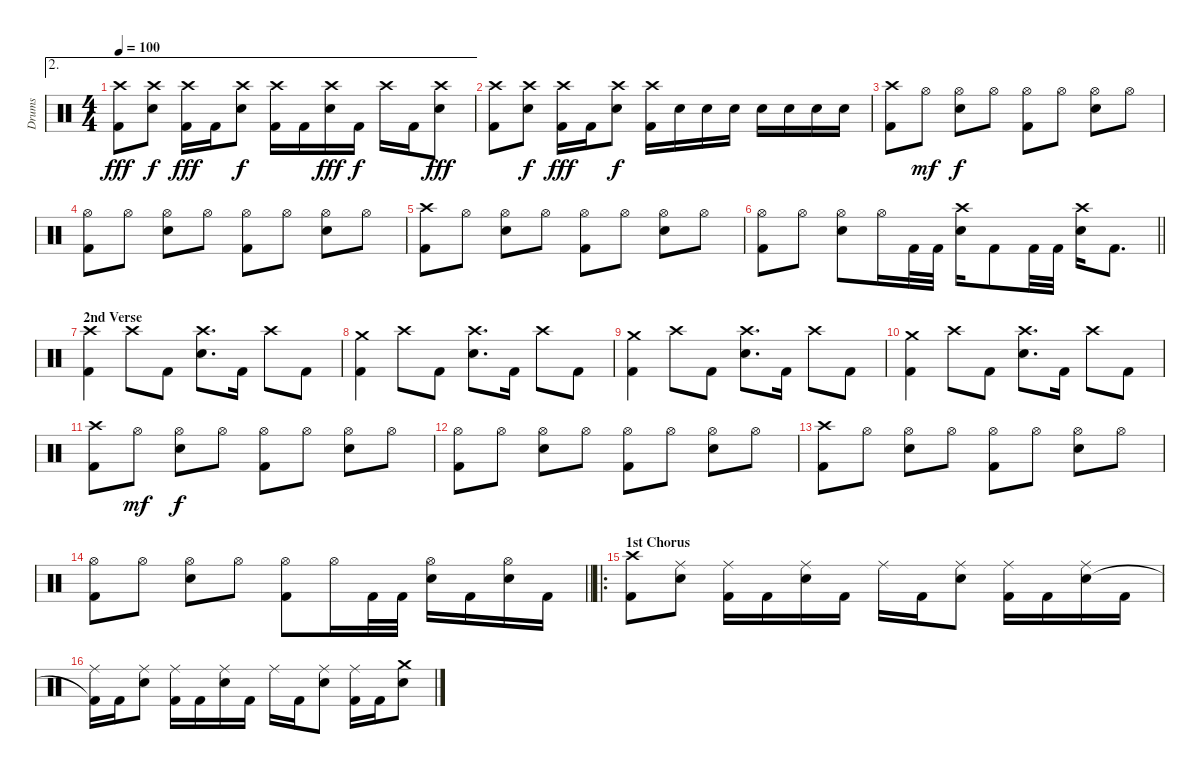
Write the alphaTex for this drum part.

\track ("Drums" "Drums") {instrument percussion}
\staff {score}
\articulation defaults
\ae 2
\ts (4 4)
\tempo 100
\clef neutral
\ks c
("Crash high (hit)" "Kick (hit) 2").8{dy fff} ("Crash high (hit)" "Snare (hit) 2").8{dy f} ("Crash high (hit)" "Kick (hit) 2").16{dy fff} "Kick (hit) 2".16 ("Crash high (hit)" "Snare (hit) 2").8{dy f} ("Crash high (hit)" "Kick (hit) 2").16 "Kick (hit) 2".16 ("Crash high (hit)" "Snare (hit) 2").16{dy fff} "Kick (hit) 2".16{dy f} "Crash high (hit)".16 "Kick (hit) 2".16 ("Crash high (hit)" "Snare (hit) 2").8{dy fff} |
("Crash high (hit)" "Kick (hit) 2").8 ("Crash high (hit)" "Snare (hit) 2").8{dy f} ("Crash high (hit)" "Kick (hit) 2").16{dy fff} "Kick (hit) 2".16 ("Crash high (hit)" "Snare (hit) 2").8{dy f} ("Crash high (hit)" "Kick (hit) 2").16 "Snare (hit) 2".16 "Snare (hit) 2".16 "Snare (hit) 2".16 "Snare (hit) 2".16 "Snare (hit) 2".16 "Snare (hit) 2".16 "Snare (hit) 2".16 |
("Crash high (hit)" "Kick (hit) 2").8 "Hi-Hat (open)".8{dy mf} ("Hi-Hat (open)" "Snare (hit) 2").8{dy f} "Hi-Hat (open)".8 ("Hi-Hat (open)" "Kick (hit) 2").8 "Hi-Hat (open)".8 ("Hi-Hat (open)" "Snare (hit) 2").8 "Hi-Hat (open)".8 |
("Hi-Hat (open)" "Kick (hit) 2").8 "Hi-Hat (open)".8 ("Hi-Hat (open)" "Snare (hit) 2").8 "Hi-Hat (open)".8 ("Hi-Hat (open)" "Kick (hit) 2").8 "Hi-Hat (open)".8 ("Hi-Hat (open)" "Snare (hit) 2").8 "Hi-Hat (open)".8 |
("Crash high (hit)" "Kick (hit) 2").8 "Hi-Hat (open)".8 ("Hi-Hat (open)" "Snare (hit) 2").8 "Hi-Hat (open)".8 ("Hi-Hat (open)" "Kick (hit) 2").8 "Hi-Hat (open)".8 ("Hi-Hat (open)" "Snare (hit) 2").8 "Hi-Hat (open)".8 |
\barLineRight lightlight
("Hi-Hat (open)" "Kick (hit) 2").8 "Hi-Hat (open)".8 ("Hi-Hat (open)" "Snare (hit) 2").8 "Hi-Hat (open)".16 "Kick (hit) 2".32 "Kick (hit) 2".32 ("Crash high (hit)" "Snare (hit) 2").16 "Kick (hit) 2".8 "Kick (hit) 2".32 "Kick (hit) 2".32 ("Crash high (hit)" "Snare (hit) 2").16 "Kick (hit) 2".8{d} |
\section ("" "2nd Verse")
("Crash high (hit)" "Kick (hit) 2").4 "Crash high (hit)".8 "Kick (hit) 2".8 ("Crash high (hit)" "Snare (hit) 2").8{d} "Kick (hit) 2".16 "Crash high (hit)".8 "Kick (hit) 2".8 |
("Crash medium (hit)" "Kick (hit) 2").4 "Crash high (hit)".8 "Kick (hit) 2".8 ("Crash high (hit)" "Snare (hit) 2").8{d} "Kick (hit) 2".16 "Crash high (hit)".8 "Kick (hit) 2".8 |
("Crash medium (hit)" "Kick (hit) 2").4 "Crash high (hit)".8 "Kick (hit) 2".8 ("Crash high (hit)" "Snare (hit) 2").8{d} "Kick (hit) 2".16 "Crash high (hit)".8 "Kick (hit) 2".8 |
("Crash medium (hit)" "Kick (hit) 2").4 "Crash high (hit)".8 "Kick (hit) 2".8 ("Crash high (hit)" "Snare (hit) 2").8{d} "Kick (hit) 2".16 "Crash high (hit)".8 "Kick (hit) 2".8 |
("Crash high (hit)" "Kick (hit) 2").8 "Hi-Hat (open)".8{dy mf} ("Hi-Hat (open)" "Snare (hit) 2").8{dy f} "Hi-Hat (open)".8 ("Hi-Hat (open)" "Kick (hit) 2").8 "Hi-Hat (open)".8 ("Hi-Hat (open)" "Snare (hit) 2").8 "Hi-Hat (open)".8 |
("Hi-Hat (open)" "Kick (hit) 2").8 "Hi-Hat (open)".8 ("Hi-Hat (open)" "Snare (hit) 2").8 "Hi-Hat (open)".8 ("Hi-Hat (open)" "Kick (hit) 2").8 "Hi-Hat (open)".8 ("Hi-Hat (open)" "Snare (hit) 2").8 "Hi-Hat (open)".8 |
("Crash high (hit)" "Kick (hit) 2").8 "Hi-Hat (open)".8 ("Hi-Hat (open)" "Snare (hit) 2").8 "Hi-Hat (open)".8 ("Hi-Hat (open)" "Kick (hit) 2").8 "Hi-Hat (open)".8 ("Hi-Hat (open)" "Snare (hit) 2").8 "Hi-Hat (open)".8 |
\barLineRight lightlight
("Hi-Hat (open)" "Kick (hit) 2").8 "Hi-Hat (open)".8 ("Hi-Hat (open)" "Snare (hit) 2").8 "Hi-Hat (open)".8 ("Hi-Hat (open)" "Kick (hit) 2").8 "Hi-Hat (open)".16 "Kick (hit) 2".32 "Kick (hit) 2".32 ("Hi-Hat (open)" "Electric Snare (hit)").16 "Kick (hit) 2".16 ("Hi-Hat (open)" "Electric Snare (hit)").16 "Kick (hit) 2".16 |
\ro
\section ("" "1st Chorus")
("Crash high (hit)" "Kick (hit) 2").8 ("Ride (middle)" "Snare (hit) 2").8 ("Ride (middle)" "Kick (hit) 2").16 "Kick (hit) 2".16 ("Ride (middle)" "Snare (hit) 2").16 "Kick (hit) 2".16 "Ride (middle)".16 "Kick (hit) 2".16 ("Ride (middle)" "Snare (hit) 2").8 ("Ride (middle)" "Kick (hit) 2").16 "Kick (hit) 2".16 ("Ride (middle)" "Snare (hit) 2").16 "Kick (hit) 2".16 |
("Ride (middle)" "Kick (hit) 2"{t}).16 "Kick (hit) 2".16 ("Ride (middle)" "Snare (hit) 2").8 ("Ride (middle)" "Kick (hit) 2").16 "Kick (hit) 2".16 ("Ride (middle)" "Snare (hit) 2").16 "Kick (hit) 2".16 "Ride (middle)".16 "Kick (hit) 2".16 ("Ride (middle)" "Snare (hit) 2").8 ("Ride (middle)" "Kick (hit) 2").16 "Kick (hit) 2".16 ("Crash medium (hit)" "Snare (hit) 2").8
